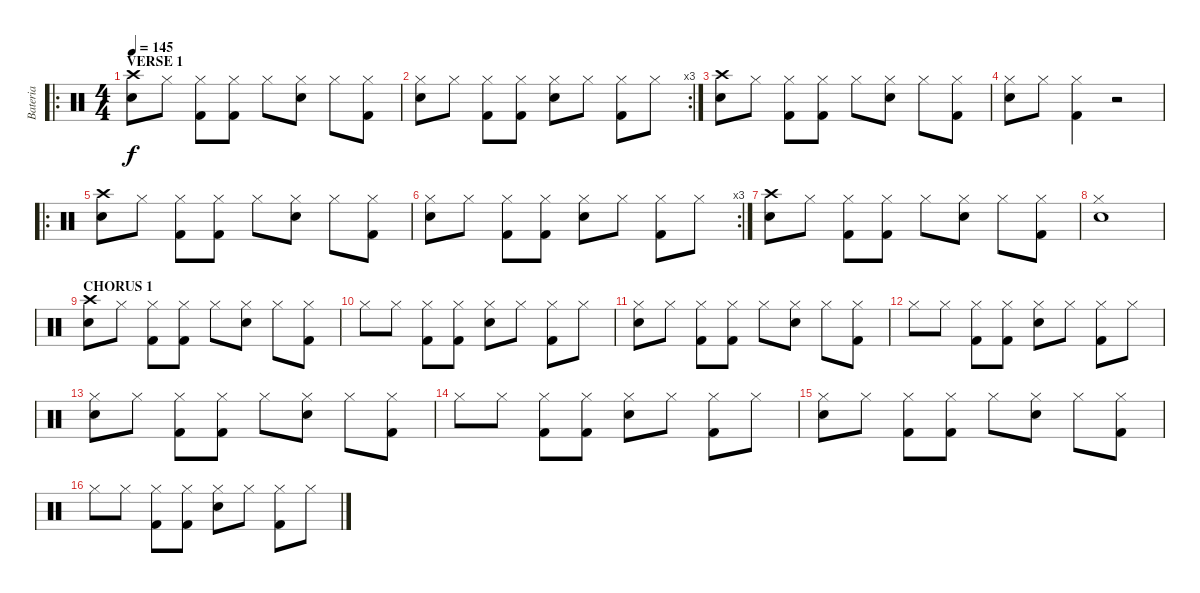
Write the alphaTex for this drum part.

\track ("Bateria" "Bateria") {instrument percussion}
\staff {score}
\articulation defaults
\ro
\ts (4 4)
\section ("" "VERSE 1")
\tempo 145
\clef neutral
\ks c
("Crash high (hit)" "Snare (hit) 2").8{dy f} "Hi-Hat (closed)".8 ("Hi-Hat (closed)" "Kick (hit) 2").8 ("Hi-Hat (closed)" "Kick (hit) 2").8 "Hi-Hat (closed)".8 ("Hi-Hat (closed)" "Snare (hit) 2").8 "Hi-Hat (closed)".8 ("Hi-Hat (closed)" "Kick (hit) 2").8 |
\rc 3
("Hi-Hat (closed)" "Snare (hit) 2").8 "Hi-Hat (closed)".8 ("Hi-Hat (closed)" "Kick (hit) 2").8 ("Hi-Hat (closed)" "Kick (hit) 2").8 ("Hi-Hat (closed)" "Snare (hit) 2").8 "Hi-Hat (closed)".8 ("Hi-Hat (closed)" "Kick (hit) 2").8 "Hi-Hat (closed)".8 |
("Crash high (hit)" "Snare (hit) 2").8 "Hi-Hat (closed)".8 ("Hi-Hat (closed)" "Kick (hit) 2").8 ("Hi-Hat (closed)" "Kick (hit) 2").8 "Hi-Hat (closed)".8 ("Hi-Hat (closed)" "Snare (hit) 2").8 "Hi-Hat (closed)".8 ("Hi-Hat (closed)" "Kick (hit) 2").8 |
("Hi-Hat (closed)" "Snare (hit) 2").8 "Hi-Hat (closed)".8 ("Hi-Hat (closed)" "Kick (hit) 2").4 r.2 |
\ro
("Crash high (hit)" "Snare (hit) 2").8 "Hi-Hat (closed)".8 ("Hi-Hat (closed)" "Kick (hit) 2").8 ("Hi-Hat (closed)" "Kick (hit) 2").8 "Hi-Hat (closed)".8 ("Hi-Hat (closed)" "Snare (hit) 2").8 "Hi-Hat (closed)".8 ("Hi-Hat (closed)" "Kick (hit) 2").8 |
\rc 3
("Hi-Hat (closed)" "Snare (hit) 2").8 "Hi-Hat (closed)".8 ("Hi-Hat (closed)" "Kick (hit) 2").8 ("Hi-Hat (closed)" "Kick (hit) 2").8 ("Hi-Hat (closed)" "Snare (hit) 2").8 "Hi-Hat (closed)".8 ("Hi-Hat (closed)" "Kick (hit) 2").8 "Hi-Hat (closed)".8 |
("Crash high (hit)" "Snare (hit) 2").8 "Hi-Hat (closed)".8 ("Hi-Hat (closed)" "Kick (hit) 2").8 ("Hi-Hat (closed)" "Kick (hit) 2").8 "Hi-Hat (closed)".8 ("Hi-Hat (closed)" "Snare (hit) 2").8 "Hi-Hat (closed)".8 ("Hi-Hat (closed)" "Kick (hit) 2").8 |
("Hi-Hat (closed)" "Snare (hit) 2").1 |
\section ("" "CHORUS 1")
("Crash high (hit)" "Snare (hit) 2").8 "Hi-Hat (closed)".8 ("Hi-Hat (closed)" "Kick (hit) 2").8 ("Hi-Hat (closed)" "Kick (hit) 2").8 "Hi-Hat (closed)".8 ("Hi-Hat (closed)" "Snare (hit) 2").8 "Hi-Hat (closed)".8 ("Hi-Hat (closed)" "Kick (hit) 2").8 |
"Hi-Hat (closed)".8 "Hi-Hat (closed)".8 ("Hi-Hat (closed)" "Kick (hit) 2").8 ("Hi-Hat (closed)" "Kick (hit) 2").8 ("Hi-Hat (closed)" "Snare (hit) 2").8 "Hi-Hat (closed)".8 ("Hi-Hat (closed)" "Kick (hit) 2").8 "Hi-Hat (closed)".8 |
("Hi-Hat (closed)" "Snare (hit) 2").8 "Hi-Hat (closed)".8 ("Hi-Hat (closed)" "Kick (hit) 2").8 ("Hi-Hat (closed)" "Kick (hit) 2").8 "Hi-Hat (closed)".8 ("Hi-Hat (closed)" "Snare (hit) 2").8 "Hi-Hat (closed)".8 ("Hi-Hat (closed)" "Kick (hit) 2").8 |
"Hi-Hat (closed)".8 "Hi-Hat (closed)".8 ("Hi-Hat (closed)" "Kick (hit) 2").8 ("Hi-Hat (closed)" "Kick (hit) 2").8 ("Hi-Hat (closed)" "Snare (hit) 2").8 "Hi-Hat (closed)".8 ("Hi-Hat (closed)" "Kick (hit) 2").8 "Hi-Hat (closed)".8 |
("Hi-Hat (closed)" "Snare (hit) 2").8 "Hi-Hat (closed)".8 ("Hi-Hat (closed)" "Kick (hit) 2").8 ("Hi-Hat (closed)" "Kick (hit) 2").8 "Hi-Hat (closed)".8 ("Hi-Hat (closed)" "Snare (hit) 2").8 "Hi-Hat (closed)".8 ("Hi-Hat (closed)" "Kick (hit) 2").8 |
"Hi-Hat (closed)".8 "Hi-Hat (closed)".8 ("Hi-Hat (closed)" "Kick (hit) 2").8 ("Hi-Hat (closed)" "Kick (hit) 2").8 ("Hi-Hat (closed)" "Snare (hit) 2").8 "Hi-Hat (closed)".8 ("Hi-Hat (closed)" "Kick (hit) 2").8 "Hi-Hat (closed)".8 |
("Hi-Hat (closed)" "Snare (hit) 2").8 "Hi-Hat (closed)".8 ("Hi-Hat (closed)" "Kick (hit) 2").8 ("Hi-Hat (closed)" "Kick (hit) 2").8 "Hi-Hat (closed)".8 ("Hi-Hat (closed)" "Snare (hit) 2").8 "Hi-Hat (closed)".8 ("Hi-Hat (closed)" "Kick (hit) 2").8 |
"Hi-Hat (closed)".8 "Hi-Hat (closed)".8 ("Hi-Hat (closed)" "Kick (hit) 2").8 ("Hi-Hat (closed)" "Kick (hit) 2").8 ("Hi-Hat (closed)" "Snare (hit) 2").8 "Hi-Hat (closed)".8 ("Hi-Hat (closed)" "Kick (hit) 2").8 "Hi-Hat (closed)".8
